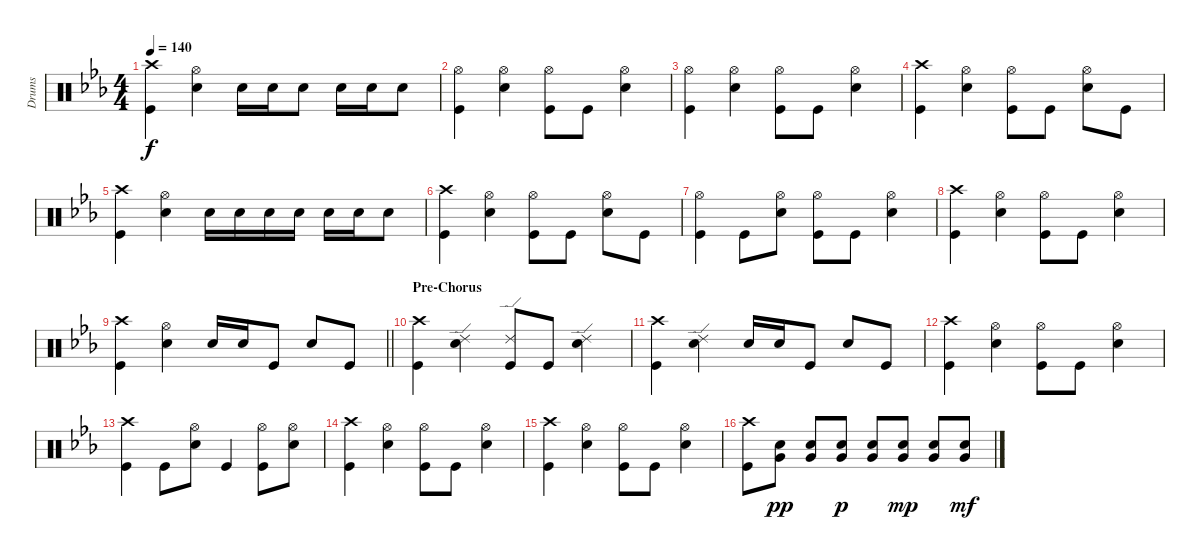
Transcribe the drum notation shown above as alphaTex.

\track ("Drums" "Drums") {instrument percussion}
\staff {score}
\articulation defaults
\ts (4 4)
\tempo 140
\clef neutral
\ks eb
("Crash high (hit)" "Kick (hit)").4{dy f} ("Hi-Hat (open)" "Snare (hit) 2").4 "Snare (hit) 2".16 "Snare (hit) 2".16 "Snare (hit) 2".8 "Snare (hit) 2".16 "Snare (hit) 2".16 "Snare (hit) 2".8 |
("Hi-Hat (open)" "Kick (hit)").4 ("Hi-Hat (open)" "Snare (hit) 2").4 ("Hi-Hat (open)" "Kick (hit)").8 "Kick (hit)".8 ("Hi-Hat (open)" "Snare (hit) 2").4 |
("Hi-Hat (open)" "Kick (hit)").4 ("Hi-Hat (open)" "Snare (hit) 2").4 ("Hi-Hat (open)" "Kick (hit)").8 "Kick (hit)".8 ("Hi-Hat (open)" "Snare (hit) 2").4 |
("Crash high (hit)" "Kick (hit)").4 ("Hi-Hat (open)" "Snare (hit) 2").4 ("Hi-Hat (open)" "Kick (hit)").8 "Kick (hit)".8 ("Hi-Hat (open)" "Snare (hit) 2").8 "Kick (hit)".8 |
("Crash high (hit)" "Kick (hit)").4 ("Hi-Hat (open)" "Snare (hit) 2").4 "Snare (hit) 2".16 "Snare (hit) 2".16 "Snare (hit) 2".16 "Snare (hit) 2".16 "Snare (hit) 2".16 "Snare (hit) 2".16 "Snare (hit) 2".8 |
("Crash high (hit)" "Kick (hit)").4 ("Hi-Hat (open)" "Snare (hit) 2").4 ("Hi-Hat (open)" "Kick (hit)").8 "Kick (hit)".8 ("Hi-Hat (open)" "Snare (hit) 2").8 "Kick (hit)".8 |
("Hi-Hat (open)" "Kick (hit)").4 "Kick (hit)".8 ("Hi-Hat (open)" "Snare (hit) 2").8 ("Hi-Hat (open)" "Kick (hit)").8 "Kick (hit)".8 ("Hi-Hat (open)" "Snare (hit) 2").4 |
("Crash high (hit)" "Kick (hit)").4 ("Hi-Hat (open)" "Snare (hit) 2").4 ("Hi-Hat (open)" "Kick (hit)").8 "Kick (hit)".8 ("Hi-Hat (open)" "Snare (hit) 2").4 |
\barLineRight lightlight
("Crash high (hit)" "Kick (hit)").4 ("Hi-Hat (open)" "Snare (hit) 2").4 "Snare (hit) 2".16 "Snare (hit) 2".16 "Kick (hit)".8 "Snare (hit) 2".8 "Kick (hit)".8 |
\section ("" "Pre-Chorus")
("Crash high (hit)" "Kick (hit)").4 ("Ride (edge) 2" "Snare (hit) 2").4 ("Ride (edge) 2" "Kick (hit)").8 "Kick (hit)".8 ("Ride (edge) 2" "Snare (hit) 2").4 |
("Crash high (hit)" "Kick (hit)").4 ("Ride (edge) 2" "Snare (hit) 2").4 "Snare (hit) 2".16 "Snare (hit) 2".16 "Kick (hit)".8 "Snare (hit) 2".8 "Kick (hit)".8 |
("Crash high (hit)" "Kick (hit)").4 ("Hi-Hat (open)" "Snare (hit) 2").4 ("Hi-Hat (open)" "Kick (hit)").8 "Kick (hit)".8 ("Hi-Hat (open)" "Snare (hit) 2").4 |
("Crash high (hit)" "Kick (hit)").4 "Kick (hit)".8 ("Hi-Hat (open)" "Snare (hit) 2").8 "Kick (hit)".4 ("Hi-Hat (open)" "Kick (hit)").8 ("Hi-Hat (open)" "Snare (hit) 2").8 |
("Crash high (hit)" "Kick (hit)").4 ("Hi-Hat (open)" "Snare (hit) 2").4 ("Hi-Hat (open)" "Kick (hit)").8 "Kick (hit)".8 ("Hi-Hat (open)" "Snare (hit) 2").4 |
("Crash high (hit)" "Kick (hit)").4 ("Hi-Hat (open)" "Snare (hit) 2").4 ("Hi-Hat (open)" "Kick (hit)").8 "Kick (hit)".8 ("Hi-Hat (open)" "Snare (hit) 2").4 |
("Crash high (hit)" "Kick (hit)").8 ("Very Low Tom (hit)" "Snare (hit) 2").8{dy pp} ("Very Low Tom (hit)" "Snare (hit) 2").8 ("Very Low Tom (hit)" "Snare (hit) 2").8{dy p} ("Very Low Tom (hit)" "Snare (hit) 2").8 ("Very Low Tom (hit)" "Snare (hit) 2").8{dy mp} ("Very Low Tom (hit)" "Snare (hit) 2").8 ("Very Low Tom (hit)" "Snare (hit) 2").8{dy mf}
